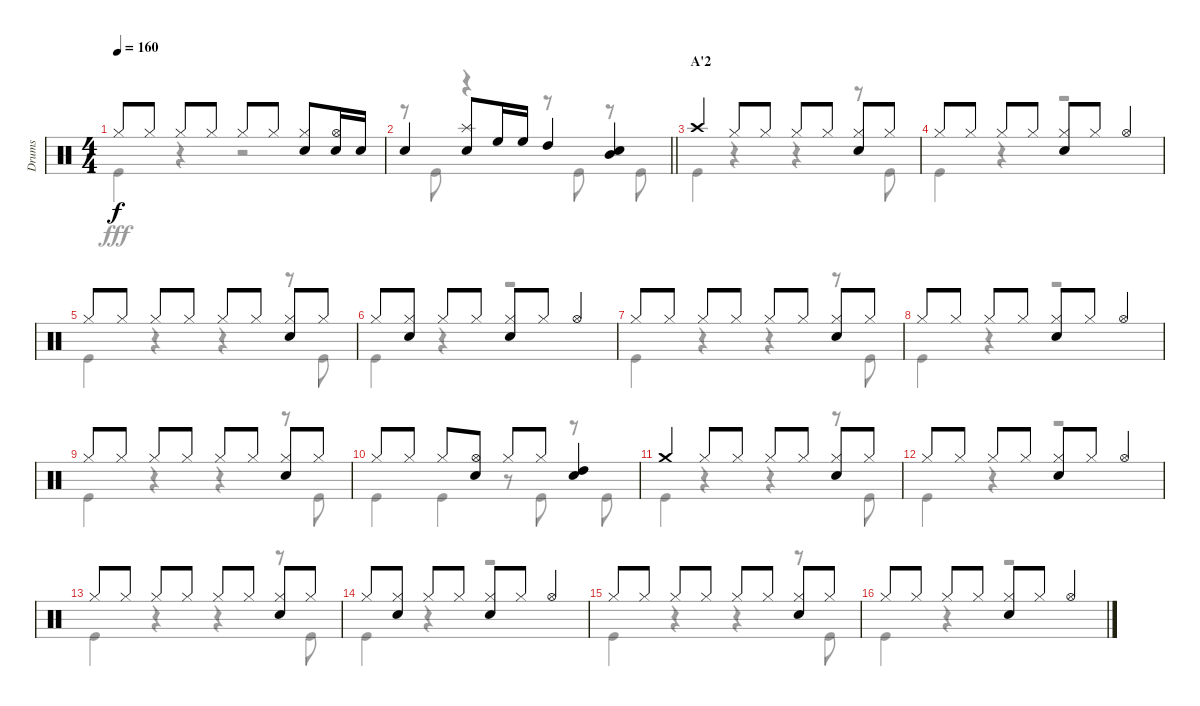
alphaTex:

\track ("Drums" "Drums") {instrument percussion}
\staff {score}
\articulation defaults
\voice
\ts (4 4)
\tempo 160
\clef neutral
\ks c "Hi-Hat (closed)".8{dy f} "Hi-Hat (closed)".8 "Hi-Hat (closed)".8 "Hi-Hat (closed)".8 "Hi-Hat (closed)".8 "Hi-Hat (closed)".8
("Hi-Hat (closed)" "Snare (hit) 2").8 ("Hi-Hat (open)" "Snare (hit) 2").16 "Snare (hit) 2".16 |
\barLineRight lightlight "Snare (hit) 2".4
("Splash (hit)" "Snare (hit) 2").8 "High Floor Tom (hit)".16 "High Floor Tom (hit)".16 "High Tom (hit)".4 ("Mid Tom (hit)" "Snare (hit) 2").4 |
\section ("" "A'2")
"Crash high (hit)".4 "Hi-Hat (closed)".8 "Hi-Hat (closed)".8 "Hi-Hat (closed)".8 "Hi-Hat (closed)".8 ("Hi-Hat (closed)" "Snare (hit) 2").8 "Hi-Hat (closed)".8 |
"Hi-Hat (closed)".8 "Hi-Hat (closed)".8 "Hi-Hat (closed)".8 "Hi-Hat (closed)".8 ("Hi-Hat (closed)" "Snare (hit) 2").8 "Hi-Hat (closed)".8 "Hi-Hat (open)".4 |
"Hi-Hat (closed)".8 "Hi-Hat (closed)".8 "Hi-Hat (closed)".8 "Hi-Hat (closed)".8 "Hi-Hat (closed)".8 "Hi-Hat (closed)".8 ("Hi-Hat (closed)" "Snare (hit) 2").8 "Hi-Hat (closed)".8 |
"Hi-Hat (closed)".8 ("Hi-Hat (closed)" "Snare (hit) 2").8 "Hi-Hat (closed)".8 "Hi-Hat (closed)".8 ("Hi-Hat (closed)" "Snare (hit) 2").8 "Hi-Hat (closed)".8 "Hi-Hat (open)".4 |
"Hi-Hat (closed)".8 "Hi-Hat (closed)".8 "Hi-Hat (closed)".8 "Hi-Hat (closed)".8 "Hi-Hat (closed)".8 "Hi-Hat (closed)".8 ("Hi-Hat (closed)" "Snare (hit) 2").8 "Hi-Hat (closed)".8 |
"Hi-Hat (closed)".8 "Hi-Hat (closed)".8 "Hi-Hat (closed)".8 "Hi-Hat (closed)".8 ("Hi-Hat (closed)" "Snare (hit) 2").8 "Hi-Hat (closed)".8 "Hi-Hat (open)".4 |
"Hi-Hat (closed)".8 "Hi-Hat (closed)".8 "Hi-Hat (closed)".8 "Hi-Hat (closed)".8 "Hi-Hat (closed)".8 "Hi-Hat (closed)".8 ("Hi-Hat (closed)" "Snare (hit) 2").8 "Hi-Hat (closed)".8 |
"Hi-Hat (closed)".8 "Hi-Hat (closed)".8 "Hi-Hat (closed)".8 ("Hi-Hat (open)" "Snare (hit) 2").8 "Hi-Hat (closed)".8 "Hi-Hat (closed)".8 ("High Tom (hit)" "Snare (hit) 2").4 |
"Crash medium (hit)".4 "Hi-Hat (closed)".8 "Hi-Hat (closed)".8 "Hi-Hat (closed)".8 "Hi-Hat (closed)".8 ("Hi-Hat (closed)" "Snare (hit) 2").8 "Hi-Hat (closed)".8 |
"Hi-Hat (closed)".8 "Hi-Hat (closed)".8 "Hi-Hat (closed)".8 "Hi-Hat (closed)".8 ("Hi-Hat (closed)" "Snare (hit) 2").8 "Hi-Hat (closed)".8 "Hi-Hat (open)".4 |
"Hi-Hat (closed)".8 "Hi-Hat (closed)".8 "Hi-Hat (closed)".8 "Hi-Hat (closed)".8 "Hi-Hat (closed)".8 "Hi-Hat (closed)".8 ("Hi-Hat (closed)" "Snare (hit) 2").8 "Hi-Hat (closed)".8 |
"Hi-Hat (closed)".8 ("Hi-Hat (closed)" "Snare (hit) 2").8 "Hi-Hat (closed)".8 "Hi-Hat (closed)".8 ("Hi-Hat (closed)" "Snare (hit) 2").8 "Hi-Hat (closed)".8 "Hi-Hat (open)".4 |
"Hi-Hat (closed)".8 "Hi-Hat (closed)".8 "Hi-Hat (closed)".8 "Hi-Hat (closed)".8 "Hi-Hat (closed)".8 "Hi-Hat (closed)".8 ("Hi-Hat (closed)" "Snare (hit) 2").8 "Hi-Hat (closed)".8 |
"Hi-Hat (closed)".8 "Hi-Hat (closed)".8 "Hi-Hat (closed)".8 "Hi-Hat (closed)".8 ("Hi-Hat (closed)" "Snare (hit) 2").8 "Hi-Hat (closed)".8 "Hi-Hat (open)".4
\voice
\clef neutral
\ottava regular
\simile none
\ks c "Kick (hit)".4{dy fff}
r.4 r.2 |
\barLineRight lightlight
r.8 "Kick (hit)".8 r.4 r.8 "Kick (hit)".8 r.8 "Kick (hit)".8 |
"Kick (hit)".4 r.4 r.4 r.8 "Kick (hit)".8 |
"Kick (hit)".4 r.4 r.2 |
"Kick (hit)".4 r.4 r.4 r.8 "Kick (hit)".8 |
"Kick (hit)".4 r.4 r.2 |
"Kick (hit)".4 r.4 r.4 r.8 "Kick (hit)".8 |
"Kick (hit)".4 r.4 r.2 |
"Kick (hit)".4 r.4 r.4 r.8 "Kick (hit)".8 |
"Kick (hit)".4 "Kick (hit)".4 r.8 "Kick (hit)".8 r.8 "Kick (hit)".8 |
"Kick (hit)".4 r.4 r.4 r.8 "Kick (hit)".8 |
"Kick (hit)".4 r.4 r.2 |
"Kick (hit)".4 r.4 r.4 r.8 "Kick (hit)".8 |
"Kick (hit)".4 r.4 r.2 |
"Kick (hit)".4 r.4 r.4 r.8 "Kick (hit)".8 |
"Kick (hit)".4 r.4 r.2
